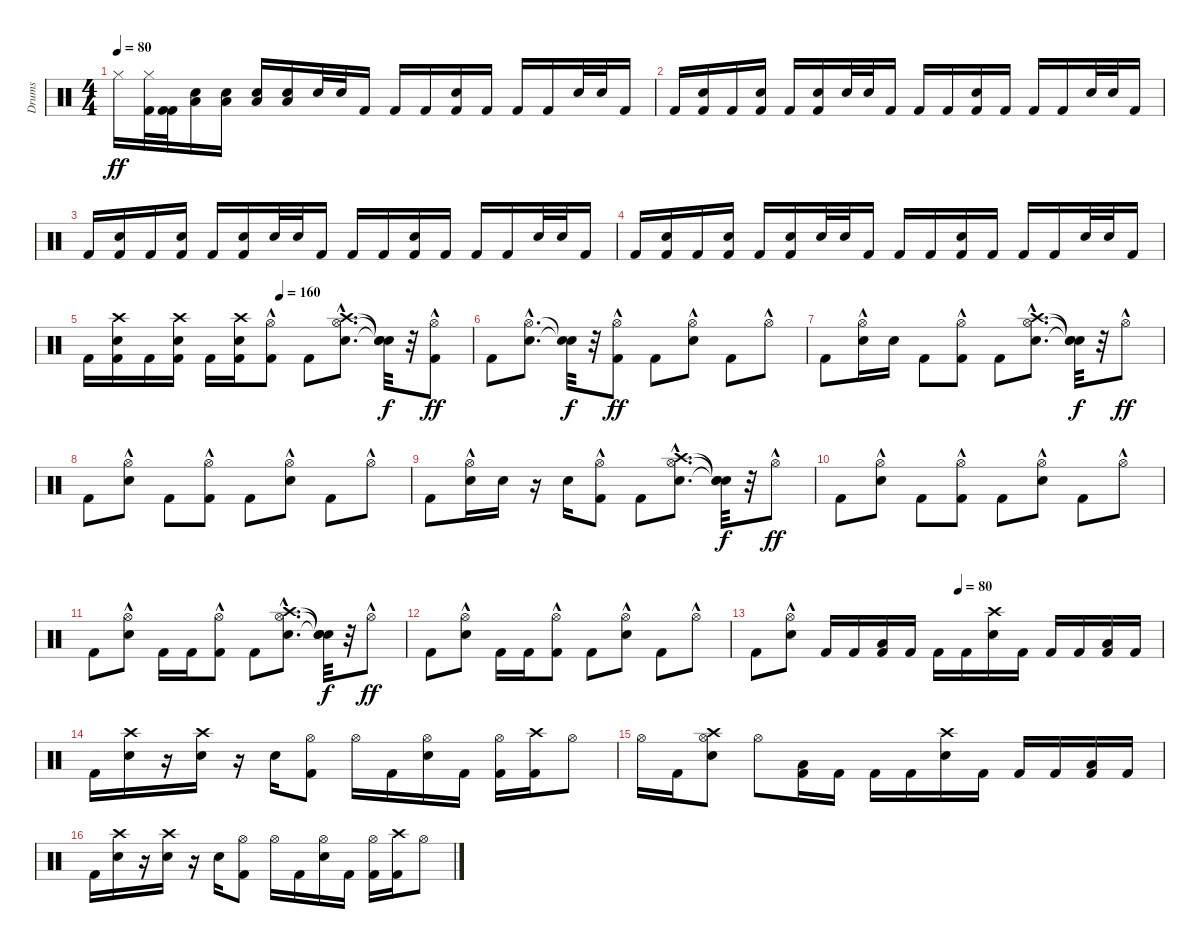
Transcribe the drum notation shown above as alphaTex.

\track ("Drums" "Drums") {instrument percussion}
\staff {score}
\articulation defaults
\ts (4 4)
\tempo 80
\clef neutral
\ks c "Hi-Hat (closed)".16{dy ff}
("Kick (hit) 2" "Hi-Hat (closed)").32 ("Kick (hit) 2" "Kick (hit) 2").32 ("Snare (hit) 2" "Low Floor Tom (hit)").16 ("Snare (hit) 2" "Low Floor Tom (hit)").16 ("Snare (hit) 2" "Low Floor Tom (hit)").16 ("Snare (hit) 2" "Low Floor Tom (hit)").16 "Snare (hit) 2".32 "Snare (hit) 2".32 "Kick (hit) 2".16 "Kick (hit) 2".16 "Kick (hit) 2".16 ("Kick (hit) 2" "Snare (hit) 2").16 "Kick (hit) 2".16 "Kick (hit) 2".16 "Kick (hit) 2".16 "Snare (hit) 2".32 "Snare (hit) 2".32 "Kick (hit) 2".16 |
"Kick (hit) 2".16 ("Kick (hit) 2" "Snare (hit) 2").16 "Kick (hit) 2".16 ("Kick (hit) 2" "Snare (hit) 2").16 "Kick (hit) 2".16 ("Kick (hit) 2" "Snare (hit) 2").16 "Snare (hit) 2".32 "Snare (hit) 2".32 "Kick (hit) 2".16 "Kick (hit) 2".16 "Kick (hit) 2".16 ("Kick (hit) 2" "Snare (hit) 2").16 "Kick (hit) 2".16 "Kick (hit) 2".16 "Kick (hit) 2".16 "Snare (hit) 2".32 "Snare (hit) 2".32 "Kick (hit) 2".16 |
"Kick (hit) 2".16 ("Kick (hit) 2" "Snare (hit) 2").16 "Kick (hit) 2".16 ("Kick (hit) 2" "Snare (hit) 2").16 "Kick (hit) 2".16 ("Kick (hit) 2" "Snare (hit) 2").16 "Snare (hit) 2".32 "Snare (hit) 2".32 "Kick (hit) 2".16 "Kick (hit) 2".16 "Kick (hit) 2".16 ("Kick (hit) 2" "Snare (hit) 2").16 "Kick (hit) 2".16 "Kick (hit) 2".16 "Kick (hit) 2".16 "Snare (hit) 2".32 "Snare (hit) 2".32 "Kick (hit) 2".16 |
"Kick (hit) 2".16 ("Kick (hit) 2" "Snare (hit) 2").16 "Kick (hit) 2".16 ("Kick (hit) 2" "Snare (hit) 2").16 "Kick (hit) 2".16 ("Kick (hit) 2" "Snare (hit) 2").16 "Snare (hit) 2".32 "Snare (hit) 2".32 "Kick (hit) 2".16 "Kick (hit) 2".16 "Kick (hit) 2".16 ("Kick (hit) 2" "Snare (hit) 2").16 "Kick (hit) 2".16 "Kick (hit) 2".16 "Kick (hit) 2".16 "Snare (hit) 2".32 "Snare (hit) 2".32 "Kick (hit) 2".16 |
\tempo (160 0.5)
"Kick (hit) 2".16 ("Kick (hit) 2" "Snare (hit) 2" "Crash high (hit)").16 "Kick (hit) 2".16 ("Kick (hit) 2" "Snare (hit) 2" "Crash high (hit)").16 "Kick (hit) 2".16 ("Kick (hit) 2" "Snare (hit) 2" "Crash high (hit)").16 ("Kick (hit) 2" "Hi-Hat (open)"{hac}).8 "Kick (hit) 2".8 ("Snare (hit) 2"{hac} "Hi-Hat (open)"{hac} "Crash high (hit)"{hac}).8{d} ("Snare (hit)"{t} "Snare (hit)"{t} "Snare (hit)"{t}).32{dy f} r.32 ("Kick (hit) 2" "Hi-Hat (open)"{hac}).8{dy ff} |
"Kick (hit) 2".8 ("Snare (hit) 2"{hac} "Hi-Hat (open)"{hac}).8{d} ("Snare (hit)"{t} "Snare (hit)"{t}).32{dy f} r.32 ("Kick (hit) 2" "Hi-Hat (open)"{hac}).8{dy ff} "Kick (hit) 2".8 ("Snare (hit) 2" "Hi-Hat (open)"{hac}).8 "Kick (hit) 2".8 "Hi-Hat (open)"{hac}.8 |
"Kick (hit) 2".8 ("Snare (hit) 2" "Hi-Hat (open)"{hac}).16 "Snare (hit) 2".16 "Kick (hit) 2".8 ("Kick (hit) 2" "Hi-Hat (open)"{hac}).8 "Kick (hit) 2".8 ("Snare (hit) 2"{hac} "Hi-Hat (open)"{hac} "Crash high (hit)"{hac}).8{d} ("Snare (hit)"{t} "Snare (hit)"{t} "Snare (hit)"{t}).32{dy f} r.32 "Hi-Hat (open)"{hac}.8{dy ff} |
"Kick (hit) 2".8 ("Snare (hit) 2" "Hi-Hat (open)"{hac}).8 "Kick (hit) 2".8 ("Kick (hit) 2" "Hi-Hat (open)"{hac}).8 "Kick (hit) 2".8 ("Snare (hit) 2" "Hi-Hat (open)"{hac}).8 "Kick (hit) 2".8 "Hi-Hat (open)"{hac}.8 |
"Kick (hit) 2".8 ("Snare (hit) 2" "Hi-Hat (open)"{hac}).16 "Snare (hit) 2".16 r.16 "Snare (hit) 2".16 ("Kick (hit) 2" "Hi-Hat (open)"{hac}).8 "Kick (hit) 2".8 ("Snare (hit) 2"{hac} "Hi-Hat (open)"{hac} "Crash high (hit)"{hac}).8{d} ("Snare (hit)"{t} "Snare (hit)"{t} "Snare (hit)"{t}).32{dy f} r.32 "Hi-Hat (open)"{hac}.8{dy ff} |
"Kick (hit) 2".8 ("Snare (hit) 2" "Hi-Hat (open)"{hac}).8 "Kick (hit) 2".8 ("Kick (hit) 2" "Hi-Hat (open)"{hac}).8 "Kick (hit) 2".8 ("Snare (hit) 2" "Hi-Hat (open)"{hac}).8 "Kick (hit) 2".8 "Hi-Hat (open)"{hac}.8 |
"Kick (hit) 2".8 ("Snare (hit) 2" "Hi-Hat (open)"{hac}).8 "Kick (hit) 2".16 "Kick (hit) 2".16 ("Kick (hit) 2" "Hi-Hat (open)"{hac}).8 "Kick (hit) 2".8 ("Snare (hit) 2"{hac} "Hi-Hat (open)"{hac} "Crash high (hit)"{hac}).8{d} ("Snare (hit)"{t} "Snare (hit)"{t} "Snare (hit)"{t}).32{dy f} r.32 "Hi-Hat (open)"{hac}.8{dy ff} |
"Kick (hit) 2".8 ("Snare (hit) 2" "Hi-Hat (open)"{hac}).8 "Kick (hit) 2".16 "Kick (hit) 2".16 ("Kick (hit) 2" "Hi-Hat (open)"{hac}).8 "Kick (hit) 2".8 ("Snare (hit) 2" "Hi-Hat (open)"{hac}).8 "Kick (hit) 2".8 "Hi-Hat (open)"{hac}.8 |
\tempo (80 0.5)
"Kick (hit) 2".8 ("Snare (hit) 2" "Hi-Hat (open)"{hac}).8 "Kick (hit) 2".16 "Kick (hit) 2".16 ("Kick (hit) 2" "Low Floor Tom (hit)").16 "Kick (hit) 2".16 "Kick (hit) 2".16 "Kick (hit) 2".16 ("Snare (hit) 2" "Crash high (hit)").16 "Kick (hit) 2".16 "Kick (hit) 2".16 "Kick (hit) 2".16 ("Kick (hit) 2" "Low Floor Tom (hit)").16 "Kick (hit) 2".16 |
"Kick (hit) 2".16 ("Snare (hit) 2" "Crash high (hit)").16 r.16 ("Snare (hit) 2" "Crash high (hit)").16 r.16 "Snare (hit) 2".16 ("Kick (hit) 2" "Hi-Hat (open)").8 "Hi-Hat (open)".16 "Kick (hit) 2".16 ("Snare (hit) 2" "Hi-Hat (open)").16 "Kick (hit) 2".16 ("Kick (hit) 2" "Hi-Hat (open)").16 ("Kick (hit) 2" "Crash high (hit)").16 "Hi-Hat (open)".8 |
"Hi-Hat (open)".16 "Kick (hit) 2".16 ("Snare (hit) 2" "Hi-Hat (open)" "Crash high (hit)").8 "Hi-Hat (open)".8 ("Kick (hit) 2" "Low Floor Tom (hit)").16 "Kick (hit) 2".16 "Kick (hit) 2".16 "Kick (hit) 2".16 ("Snare (hit) 2" "Crash high (hit)").16 "Kick (hit) 2".16 "Kick (hit) 2".16 "Kick (hit) 2".16 ("Kick (hit) 2" "Low Floor Tom (hit)").16 "Kick (hit) 2".16 |
"Kick (hit) 2".16 ("Snare (hit) 2" "Crash high (hit)").16 r.16 ("Snare (hit) 2" "Crash high (hit)").16 r.16 "Snare (hit) 2".16 ("Kick (hit) 2" "Hi-Hat (open)").8 "Hi-Hat (open)".16 "Kick (hit) 2".16 ("Snare (hit) 2" "Hi-Hat (open)").16 "Kick (hit) 2".16 ("Kick (hit) 2" "Hi-Hat (open)").16 ("Kick (hit) 2" "Crash high (hit)").16 "Hi-Hat (open)".8
